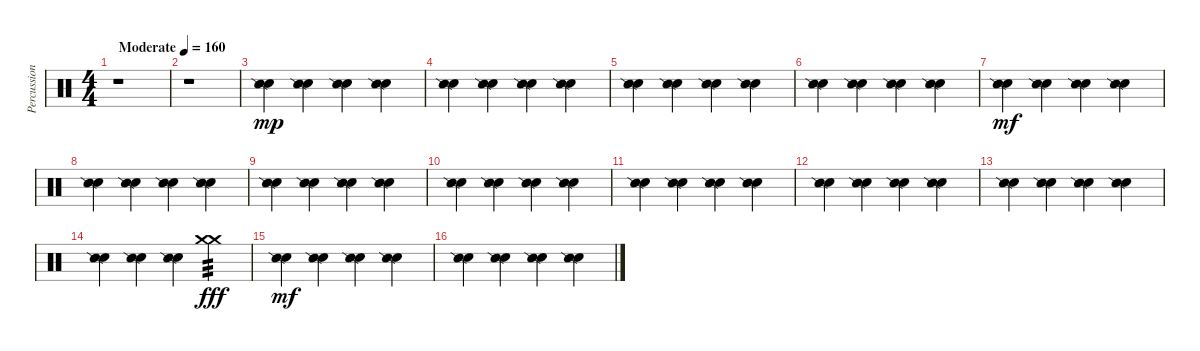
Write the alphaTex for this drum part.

\track ("Percussion 2" "Percussion") {instrument percussion}
\staff {score}
\articulation defaults
\ts (4 4)
\tempo (160 "Moderate")
\clef neutral
\ks c
r.1{dy mp} |
r.1 |
("Hand Clap (hit)" "Snare (side stick) 2").4 ("Hand Clap (hit)" "Snare (side stick) 2").4 ("Hand Clap (hit)" "Snare (side stick) 2").4 ("Hand Clap (hit)" "Snare (side stick) 2").4 |
("Hand Clap (hit)" "Snare (side stick) 2").4 ("Hand Clap (hit)" "Snare (side stick) 2").4 ("Hand Clap (hit)" "Snare (side stick) 2").4 ("Hand Clap (hit)" "Snare (side stick) 2").4 |
("Hand Clap (hit)" "Snare (side stick) 2").4 ("Hand Clap (hit)" "Snare (side stick) 2").4 ("Hand Clap (hit)" "Snare (side stick) 2").4 ("Hand Clap (hit)" "Snare (side stick) 2").4 |
("Hand Clap (hit)" "Snare (side stick) 2").4 ("Hand Clap (hit)" "Snare (side stick) 2").4 ("Hand Clap (hit)" "Snare (side stick) 2").4 ("Hand Clap (hit)" "Snare (side stick) 2").4 |
("Hand Clap (hit)" "Snare (side stick) 2").4{dy mf} ("Hand Clap (hit)" "Snare (side stick) 2").4 ("Hand Clap (hit)" "Snare (side stick) 2").4 ("Hand Clap (hit)" "Snare (side stick) 2").4 |
("Hand Clap (hit)" "Snare (side stick) 2").4 ("Hand Clap (hit)" "Snare (side stick) 2").4 ("Hand Clap (hit)" "Snare (side stick) 2").4 ("Hand Clap (hit)" "Snare (side stick) 2").4 |
("Hand Clap (hit)" "Snare (side stick) 2").4 ("Hand Clap (hit)" "Snare (side stick) 2").4 ("Hand Clap (hit)" "Snare (side stick) 2").4 ("Hand Clap (hit)" "Snare (side stick) 2").4 |
("Hand Clap (hit)" "Snare (side stick) 2").4 ("Hand Clap (hit)" "Snare (side stick) 2").4 ("Hand Clap (hit)" "Snare (side stick) 2").4 ("Hand Clap (hit)" "Snare (side stick) 2").4 |
("Hand Clap (hit)" "Snare (side stick) 2").4 ("Hand Clap (hit)" "Snare (side stick) 2").4 ("Hand Clap (hit)" "Snare (side stick) 2").4 ("Hand Clap (hit)" "Snare (side stick) 2").4 |
("Hand Clap (hit)" "Snare (side stick) 2").4 ("Hand Clap (hit)" "Snare (side stick) 2").4 ("Hand Clap (hit)" "Snare (side stick) 2").4 ("Hand Clap (hit)" "Snare (side stick) 2").4 |
("Hand Clap (hit)" "Snare (side stick) 2").4 ("Hand Clap (hit)" "Snare (side stick) 2").4 ("Hand Clap (hit)" "Snare (side stick) 2").4 ("Hand Clap (hit)" "Snare (side stick) 2").4 |
("Hand Clap (hit)" "Snare (side stick) 2").4 ("Hand Clap (hit)" "Snare (side stick) 2").4 ("Hand Clap (hit)" "Snare (side stick) 2").4 ("Crash medium (hit)" "Crash medium (hit)").4{tp 3 dy fff} |
("Hand Clap (hit)" "Snare (side stick) 2").4{dy mf} ("Hand Clap (hit)" "Snare (side stick) 2").4 ("Hand Clap (hit)" "Snare (side stick) 2").4 ("Hand Clap (hit)" "Snare (side stick) 2").4 |
("Hand Clap (hit)" "Snare (side stick) 2").4 ("Hand Clap (hit)" "Snare (side stick) 2").4 ("Hand Clap (hit)" "Snare (side stick) 2").4 ("Hand Clap (hit)" "Snare (side stick) 2").4
